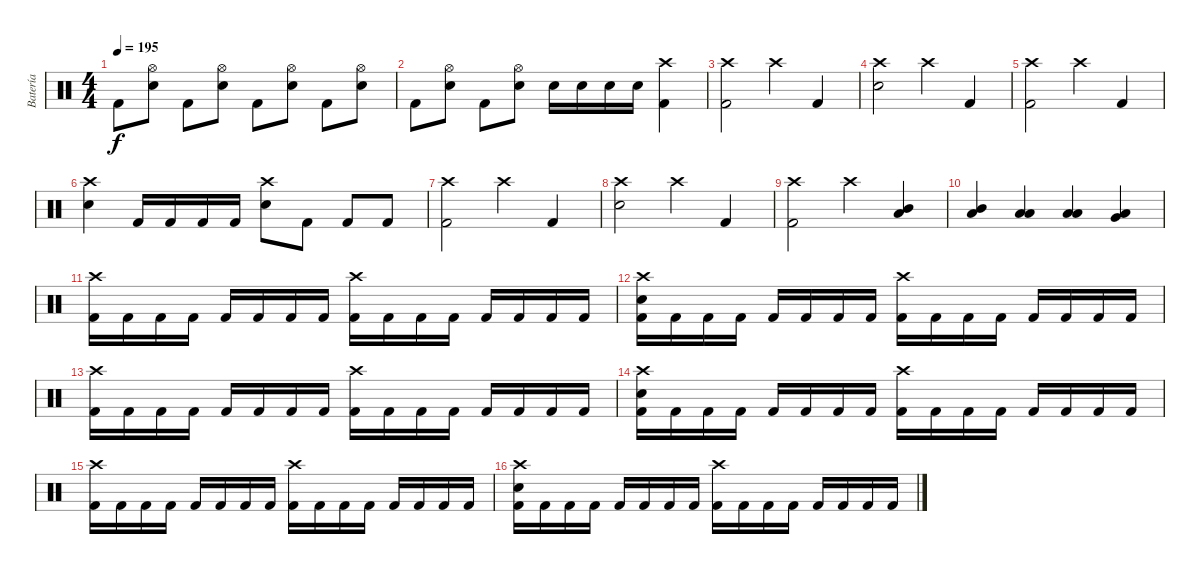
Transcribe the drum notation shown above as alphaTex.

\track ("Batería" "Batería") {instrument percussion}
\staff {score}
\articulation defaults
\ts (4 4)
\tempo 195
\clef neutral
\ks c "Kick (hit) 2".8{dy f}
("Hi-Hat (open)" "Snare (hit) 2").8 "Kick (hit) 2".8 ("Hi-Hat (open)" "Snare (hit) 2").8 "Kick (hit) 2".8 ("Hi-Hat (open)" "Snare (hit) 2").8 "Kick (hit) 2".8 ("Hi-Hat (open)" "Snare (hit) 2").8 |
"Kick (hit) 2".8 ("Hi-Hat (open)" "Snare (hit) 2").8 "Kick (hit) 2".8 ("Hi-Hat (open)" "Snare (hit) 2").8 "Snare (hit) 2".16 "Snare (hit) 2".16 "Snare (hit) 2".16 "Snare (hit) 2".16 ("Crash high (hit)" "Kick (hit) 2").4 |
("Crash high (hit)" "Kick (hit) 2").2 "Crash high (hit)".4 "Kick (hit) 2".4 |
("Crash high (hit)" "Snare (hit) 2").2 "Crash high (hit)".4 "Kick (hit) 2".4 |
("Crash high (hit)" "Kick (hit) 2").2 "Crash high (hit)".4 "Kick (hit) 2".4 |
("Crash high (hit)" "Snare (hit) 2").4 "Kick (hit) 2".16 "Kick (hit) 2".16 "Kick (hit) 2".16 "Kick (hit) 2".16 ("Crash high (hit)" "Snare (hit) 2").8 "Kick (hit) 2".8 "Kick (hit) 2".8 "Kick (hit) 2".8 |
("Crash high (hit)" "Kick (hit) 2").2 "Crash high (hit)".4 "Kick (hit) 2".4 |
("Crash high (hit)" "Snare (hit) 2").2 "Crash high (hit)".4 "Kick (hit) 2".4 |
("Crash high (hit)" "Kick (hit) 2").2 "Crash high (hit)".4 ("Mid Tom (hit)" "Low Floor Tom (hit)").4 |
("Mid Tom (hit)" "Low Floor Tom (hit)").4 ("Low Tom (hit)" "Low Floor Tom (hit)").4 ("Low Tom (hit)" "Low Floor Tom (hit)").4 ("Very Low Tom (hit)" "Low Floor Tom (hit)").4 |
("Crash high (hit)" "Kick (hit) 2").16 "Kick (hit) 2".16 "Kick (hit) 2".16 "Kick (hit) 2".16 "Kick (hit) 2".16 "Kick (hit) 2".16 "Kick (hit) 2".16 "Kick (hit) 2".16 ("Crash high (hit)" "Kick (hit) 2").16 "Kick (hit) 2".16 "Kick (hit) 2".16 "Kick (hit) 2".16 "Kick (hit) 2".16 "Kick (hit) 2".16 "Kick (hit) 2".16 "Kick (hit) 2".16 |
("Crash high (hit)" "Snare (hit) 2" "Kick (hit) 2").16 "Kick (hit) 2".16 "Kick (hit) 2".16 "Kick (hit) 2".16 "Kick (hit) 2".16 "Kick (hit) 2".16 "Kick (hit) 2".16 "Kick (hit) 2".16 ("Crash high (hit)" "Kick (hit) 2").16 "Kick (hit) 2".16 "Kick (hit) 2".16 "Kick (hit) 2".16 "Kick (hit) 2".16 "Kick (hit) 2".16 "Kick (hit) 2".16 "Kick (hit) 2".16 |
("Crash high (hit)" "Kick (hit) 2").16 "Kick (hit) 2".16 "Kick (hit) 2".16 "Kick (hit) 2".16 "Kick (hit) 2".16 "Kick (hit) 2".16 "Kick (hit) 2".16 "Kick (hit) 2".16 ("Crash high (hit)" "Kick (hit) 2").16 "Kick (hit) 2".16 "Kick (hit) 2".16 "Kick (hit) 2".16 "Kick (hit) 2".16 "Kick (hit) 2".16 "Kick (hit) 2".16 "Kick (hit) 2".16 |
("Crash high (hit)" "Snare (hit) 2" "Kick (hit) 2").16 "Kick (hit) 2".16 "Kick (hit) 2".16 "Kick (hit) 2".16 "Kick (hit) 2".16 "Kick (hit) 2".16 "Kick (hit) 2".16 "Kick (hit) 2".16 ("Crash high (hit)" "Kick (hit) 2").16 "Kick (hit) 2".16 "Kick (hit) 2".16 "Kick (hit) 2".16 "Kick (hit) 2".16 "Kick (hit) 2".16 "Kick (hit) 2".16 "Kick (hit) 2".16 |
("Crash high (hit)" "Kick (hit) 2").16 "Kick (hit) 2".16 "Kick (hit) 2".16 "Kick (hit) 2".16 "Kick (hit) 2".16 "Kick (hit) 2".16 "Kick (hit) 2".16 "Kick (hit) 2".16 ("Crash high (hit)" "Kick (hit) 2").16 "Kick (hit) 2".16 "Kick (hit) 2".16 "Kick (hit) 2".16 "Kick (hit) 2".16 "Kick (hit) 2".16 "Kick (hit) 2".16 "Kick (hit) 2".16 |
("Crash high (hit)" "Snare (hit) 2" "Kick (hit) 2").16 "Kick (hit) 2".16 "Kick (hit) 2".16 "Kick (hit) 2".16 "Kick (hit) 2".16 "Kick (hit) 2".16 "Kick (hit) 2".16 "Kick (hit) 2".16 ("Crash high (hit)" "Kick (hit) 2").16 "Kick (hit) 2".16 "Kick (hit) 2".16 "Kick (hit) 2".16 "Kick (hit) 2".16 "Kick (hit) 2".16 "Kick (hit) 2".16 "Kick (hit) 2".16
